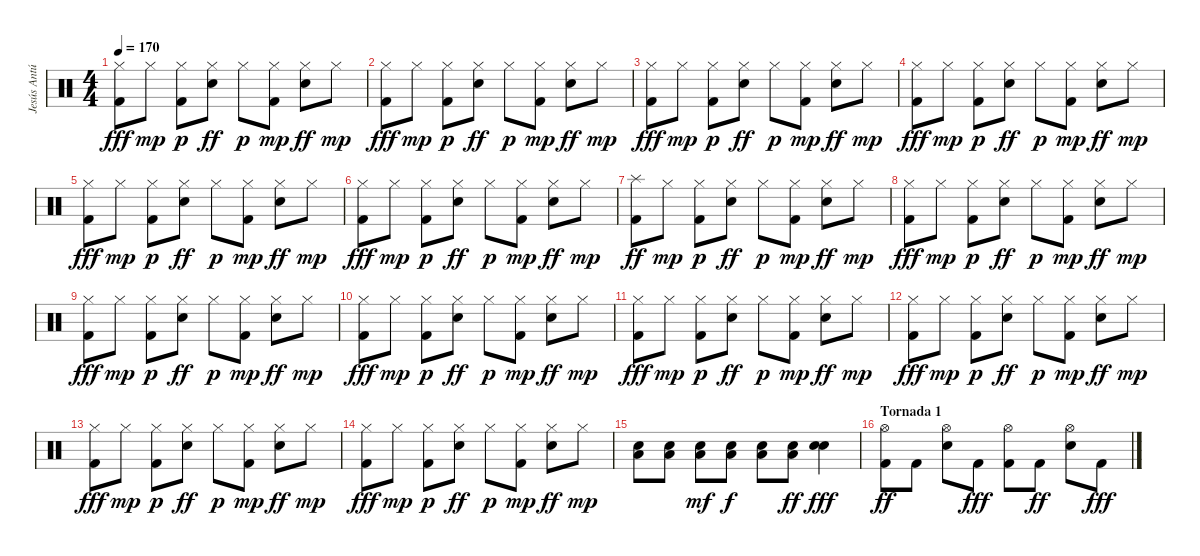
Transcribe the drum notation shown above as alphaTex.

\track ("Jesús Antúnez (Bateria)" "Jesús Antú") {instrument percussion}
\staff {score}
\articulation defaults
\ts (4 4)
\tempo 170
\clef neutral
\ks c
("Kick (hit) 2" "Hi-Hat (closed)").8{dy fff} "Hi-Hat (closed)".8{dy mp} ("Kick (hit) 2" "Hi-Hat (closed)").8{dy p} ("Hi-Hat (closed)" "Electric Snare (hit)").8{dy ff} "Hi-Hat (closed)".8{dy p} ("Kick (hit) 2" "Hi-Hat (closed)").8{dy mp} ("Hi-Hat (closed)" "Electric Snare (hit)").8{dy ff} "Hi-Hat (closed)".8{dy mp} |
("Kick (hit) 2" "Hi-Hat (closed)").8{dy fff} "Hi-Hat (closed)".8{dy mp} ("Kick (hit) 2" "Hi-Hat (closed)").8{dy p} ("Hi-Hat (closed)" "Electric Snare (hit)").8{dy ff} "Hi-Hat (closed)".8{dy p} ("Kick (hit) 2" "Hi-Hat (closed)").8{dy mp} ("Hi-Hat (closed)" "Electric Snare (hit)").8{dy ff} "Hi-Hat (closed)".8{dy mp} |
("Kick (hit) 2" "Hi-Hat (closed)").8{dy fff} "Hi-Hat (closed)".8{dy mp} ("Kick (hit) 2" "Hi-Hat (closed)").8{dy p} ("Hi-Hat (closed)" "Electric Snare (hit)").8{dy ff} "Hi-Hat (closed)".8{dy p} ("Kick (hit) 2" "Hi-Hat (closed)").8{dy mp} ("Hi-Hat (closed)" "Electric Snare (hit)").8{dy ff} "Hi-Hat (closed)".8{dy mp} |
("Kick (hit) 2" "Hi-Hat (closed)").8{dy fff} "Hi-Hat (closed)".8{dy mp} ("Kick (hit) 2" "Hi-Hat (closed)").8{dy p} ("Hi-Hat (closed)" "Electric Snare (hit)").8{dy ff} "Hi-Hat (closed)".8{dy p} ("Kick (hit) 2" "Hi-Hat (closed)").8{dy mp} ("Hi-Hat (closed)" "Electric Snare (hit)").8{dy ff} "Hi-Hat (closed)".8{dy mp} |
("Kick (hit) 2" "Hi-Hat (closed)").8{dy fff} "Hi-Hat (closed)".8{dy mp} ("Kick (hit) 2" "Hi-Hat (closed)").8{dy p} ("Hi-Hat (closed)" "Electric Snare (hit)").8{dy ff} "Hi-Hat (closed)".8{dy p} ("Kick (hit) 2" "Hi-Hat (closed)").8{dy mp} ("Hi-Hat (closed)" "Electric Snare (hit)").8{dy ff} "Hi-Hat (closed)".8{dy mp} |
("Kick (hit) 2" "Hi-Hat (closed)").8{dy fff} "Hi-Hat (closed)".8{dy mp} ("Kick (hit) 2" "Hi-Hat (closed)").8{dy p} ("Hi-Hat (closed)" "Electric Snare (hit)").8{dy ff} "Hi-Hat (closed)".8{dy p} ("Kick (hit) 2" "Hi-Hat (closed)").8{dy mp} ("Hi-Hat (closed)" "Electric Snare (hit)").8{dy ff} "Hi-Hat (closed)".8{dy mp} |
("Splash (hit)" "Kick (hit) 2").8{dy ff} "Hi-Hat (closed)".8{dy mp} ("Kick (hit) 2" "Hi-Hat (closed)").8{dy p} ("Hi-Hat (closed)" "Electric Snare (hit)").8{dy ff} "Hi-Hat (closed)".8{dy p} ("Kick (hit) 2" "Hi-Hat (closed)").8{dy mp} ("Hi-Hat (closed)" "Electric Snare (hit)").8{dy ff} "Hi-Hat (closed)".8{dy mp} |
("Kick (hit) 2" "Hi-Hat (closed)").8{dy fff} "Hi-Hat (closed)".8{dy mp} ("Kick (hit) 2" "Hi-Hat (closed)").8{dy p} ("Hi-Hat (closed)" "Electric Snare (hit)").8{dy ff} "Hi-Hat (closed)".8{dy p} ("Kick (hit) 2" "Hi-Hat (closed)").8{dy mp} ("Hi-Hat (closed)" "Electric Snare (hit)").8{dy ff} "Hi-Hat (closed)".8{dy mp} |
("Kick (hit) 2" "Hi-Hat (closed)").8{dy fff} "Hi-Hat (closed)".8{dy mp} ("Kick (hit) 2" "Hi-Hat (closed)").8{dy p} ("Hi-Hat (closed)" "Electric Snare (hit)").8{dy ff} "Hi-Hat (closed)".8{dy p} ("Kick (hit) 2" "Hi-Hat (closed)").8{dy mp} ("Hi-Hat (closed)" "Electric Snare (hit)").8{dy ff} "Hi-Hat (closed)".8{dy mp} |
("Kick (hit) 2" "Hi-Hat (closed)").8{dy fff} "Hi-Hat (closed)".8{dy mp} ("Kick (hit) 2" "Hi-Hat (closed)").8{dy p} ("Hi-Hat (closed)" "Electric Snare (hit)").8{dy ff} "Hi-Hat (closed)".8{dy p} ("Kick (hit) 2" "Hi-Hat (closed)").8{dy mp} ("Hi-Hat (closed)" "Electric Snare (hit)").8{dy ff} "Hi-Hat (closed)".8{dy mp} |
("Kick (hit) 2" "Hi-Hat (closed)").8{dy fff} "Hi-Hat (closed)".8{dy mp} ("Kick (hit) 2" "Hi-Hat (closed)").8{dy p} ("Hi-Hat (closed)" "Electric Snare (hit)").8{dy ff} "Hi-Hat (closed)".8{dy p} ("Kick (hit) 2" "Hi-Hat (closed)").8{dy mp} ("Hi-Hat (closed)" "Electric Snare (hit)").8{dy ff} "Hi-Hat (closed)".8{dy mp} |
("Kick (hit) 2" "Hi-Hat (closed)").8{dy fff} "Hi-Hat (closed)".8{dy mp} ("Kick (hit) 2" "Hi-Hat (closed)").8{dy p} ("Hi-Hat (closed)" "Electric Snare (hit)").8{dy ff} "Hi-Hat (closed)".8{dy p} ("Kick (hit) 2" "Hi-Hat (closed)").8{dy mp} ("Hi-Hat (closed)" "Electric Snare (hit)").8{dy ff} "Hi-Hat (closed)".8{dy mp} |
("Kick (hit) 2" "Hi-Hat (closed)").8{dy fff} "Hi-Hat (closed)".8{dy mp} ("Kick (hit) 2" "Hi-Hat (closed)").8{dy p} ("Hi-Hat (closed)" "Electric Snare (hit)").8{dy ff} "Hi-Hat (closed)".8{dy p} ("Kick (hit) 2" "Hi-Hat (closed)").8{dy mp} ("Hi-Hat (closed)" "Electric Snare (hit)").8{dy ff} "Hi-Hat (closed)".8{dy mp} |
("Kick (hit) 2" "Hi-Hat (closed)").8{dy fff} "Hi-Hat (closed)".8{dy mp} ("Kick (hit) 2" "Hi-Hat (closed)").8{dy p} ("Hi-Hat (closed)" "Electric Snare (hit)").8{dy ff} "Hi-Hat (closed)".8{dy p} ("Kick (hit) 2" "Hi-Hat (closed)").8{dy mp} ("Hi-Hat (closed)" "Electric Snare (hit)").8{dy ff} "Hi-Hat (closed)".8{dy mp} |
("Electric Snare (hit)" "Low Tom (hit)").8 ("Electric Snare (hit)" "Low Tom (hit)").8 ("Electric Snare (hit)" "Low Tom (hit)").8{dy mf} ("Low Tom (hit)" "Electric Snare (hit)").8{dy f} ("Electric Snare (hit)" "Low Tom (hit)").8 ("Low Tom (hit)" "Electric Snare (hit)").8{dy ff} ("Electric Snare (hit)" "Electric Snare (hit)").4{dy fff} |
\section ("" "Tornada 1")
("Kick (hit) 2" "Hi-Hat (open)").8{dy ff} "Kick (hit) 2".8 ("Electric Snare (hit)" "Hi-Hat (open)").8 "Kick (hit) 2".8{dy fff} ("Kick (hit) 2" "Hi-Hat (open)").8 "Kick (hit) 2".8{dy ff} ("Electric Snare (hit)" "Hi-Hat (open)").8 "Kick (hit) 2".8{dy fff}
